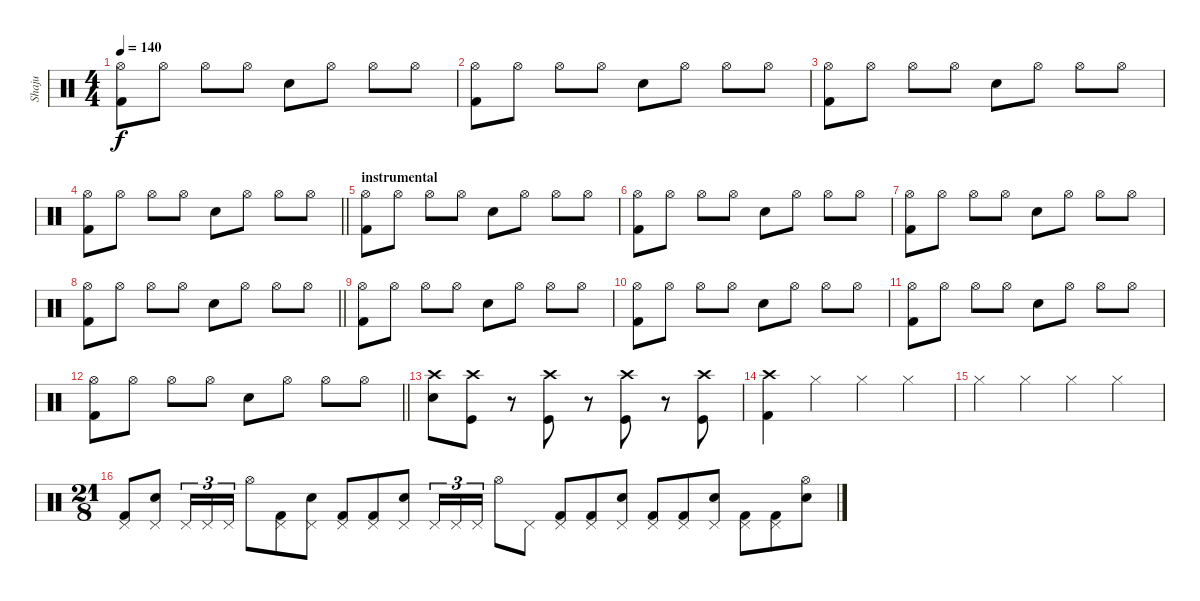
\track ("Shaju" "Shaju") {instrument percussion}
\staff {score}
\articulation defaults
\ts (4 4)
\tempo 140
\clef neutral
\ks c
("Hi-Hat (open)" "Kick (hit) 2").8{dy f} "Hi-Hat (open)".8 "Hi-Hat (open)".8 "Hi-Hat (open)".8 "Snare (hit) 2".8 "Hi-Hat (open)".8 "Hi-Hat (open)".8 "Hi-Hat (open)".8 |
("Hi-Hat (open)" "Kick (hit) 2").8 "Hi-Hat (open)".8 "Hi-Hat (open)".8 "Hi-Hat (open)".8 "Snare (hit) 2".8 "Hi-Hat (open)".8 "Hi-Hat (open)".8 "Hi-Hat (open)".8 |
("Hi-Hat (open)" "Kick (hit) 2").8 "Hi-Hat (open)".8 "Hi-Hat (open)".8 "Hi-Hat (open)".8 "Snare (hit) 2".8 "Hi-Hat (open)".8 "Hi-Hat (open)".8 "Hi-Hat (open)".8 |
\barLineRight lightlight
("Hi-Hat (open)" "Kick (hit) 2").8 "Hi-Hat (open)".8 "Hi-Hat (open)".8 "Hi-Hat (open)".8 "Snare (hit) 2".8 "Hi-Hat (open)".8 "Hi-Hat (open)".8 "Hi-Hat (open)".8 |
\section ("" "instrumental")
("Hi-Hat (open)" "Kick (hit) 2").8 "Hi-Hat (open)".8 "Hi-Hat (open)".8 "Hi-Hat (open)".8 "Snare (hit) 2".8 "Hi-Hat (open)".8 "Hi-Hat (open)".8 "Hi-Hat (open)".8 |
("Hi-Hat (open)" "Kick (hit) 2").8 "Hi-Hat (open)".8 "Hi-Hat (open)".8 "Hi-Hat (open)".8 "Snare (hit) 2".8 "Hi-Hat (open)".8 "Hi-Hat (open)".8 "Hi-Hat (open)".8 |
("Hi-Hat (open)" "Kick (hit) 2").8 "Hi-Hat (open)".8 "Hi-Hat (open)".8 "Hi-Hat (open)".8 "Snare (hit) 2".8 "Hi-Hat (open)".8 "Hi-Hat (open)".8 "Hi-Hat (open)".8 |
\barLineRight lightlight
("Hi-Hat (open)" "Kick (hit) 2").8 "Hi-Hat (open)".8 "Hi-Hat (open)".8 "Hi-Hat (open)".8 "Snare (hit) 2".8 "Hi-Hat (open)".8 "Hi-Hat (open)".8 "Hi-Hat (open)".8 |
("Hi-Hat (open)" "Kick (hit) 2").8 "Hi-Hat (open)".8 "Hi-Hat (open)".8 "Hi-Hat (open)".8 "Snare (hit) 2".8 "Hi-Hat (open)".8 "Hi-Hat (open)".8 "Hi-Hat (open)".8 |
("Hi-Hat (open)" "Kick (hit) 2").8 "Hi-Hat (open)".8 "Hi-Hat (open)".8 "Hi-Hat (open)".8 "Snare (hit) 2".8 "Hi-Hat (open)".8 "Hi-Hat (open)".8 "Hi-Hat (open)".8 |
("Hi-Hat (open)" "Kick (hit) 2").8 "Hi-Hat (open)".8 "Hi-Hat (open)".8 "Hi-Hat (open)".8 "Snare (hit) 2".8 "Hi-Hat (open)".8 "Hi-Hat (open)".8 "Hi-Hat (open)".8 |
\barLineRight lightlight
("Hi-Hat (open)" "Kick (hit) 2").8 "Hi-Hat (open)".8 "Hi-Hat (open)".8 "Hi-Hat (open)".8 "Snare (hit) 2".8 "Hi-Hat (open)".8 "Hi-Hat (open)".8 "Hi-Hat (open)".8 |
("Crash high (hit)" "Snare (hit) 2").8 ("Crash high (hit)" "Kick (hit)").8 r.8 ("Kick (hit)" "Crash high (hit)").8 r.8 ("Kick (hit)" "Crash high (hit)").8 r.8 ("Crash high (hit)" "Kick (hit)").8 |
("Crash high (hit)" "Kick (hit) 2").4 "Hi-Hat (closed)".4 "Hi-Hat (closed)".4 "Hi-Hat (closed)".4 |
"Hi-Hat (closed)".4 "Hi-Hat (closed)".4 "Hi-Hat (closed)".4 "Hi-Hat (closed)".4 |
\ts (21 8)
("Pedal Hi-Hat (hit)" "Kick (hit) 2").8 ("Pedal Hi-Hat (hit)" "Snare (hit) 2").8 "Pedal Hi-Hat (hit)".16{tu (3 2)} "Pedal Hi-Hat (hit)".16{tu (3 2)} "Pedal Hi-Hat (hit)".16{tu (3 2)} "Hi-Hat (open)".8 ("Pedal Hi-Hat (hit)" "Kick (hit) 2").8 ("Pedal Hi-Hat (hit)" "Snare (hit) 2").8 ("Pedal Hi-Hat (hit)" "Kick (hit) 2").8 ("Pedal Hi-Hat (hit)" "Kick (hit) 2").8 ("Pedal Hi-Hat (hit)" "Snare (hit) 2").8 "Pedal Hi-Hat (hit)".16{tu (3 2)} "Pedal Hi-Hat (hit)".16{tu (3 2)} "Pedal Hi-Hat (hit)".16{tu (3 2)} "Hi-Hat (open)".8 "Pedal Hi-Hat (hit)".8 ("Pedal Hi-Hat (hit)" "Kick (hit) 2").8 ("Pedal Hi-Hat (hit)" "Kick (hit) 2").8 ("Pedal Hi-Hat (hit)" "Snare (hit) 2").8 ("Pedal Hi-Hat (hit)" "Kick (hit) 2").8 ("Pedal Hi-Hat (hit)" "Kick (hit) 2").8 ("Pedal Hi-Hat (hit)" "Snare (hit) 2").8 ("Pedal Hi-Hat (hit)" "Kick (hit) 2").8 ("Pedal Hi-Hat (hit)" "Kick (hit) 2").8 ("Hi-Hat (open)" "Snare (hit) 2").8
